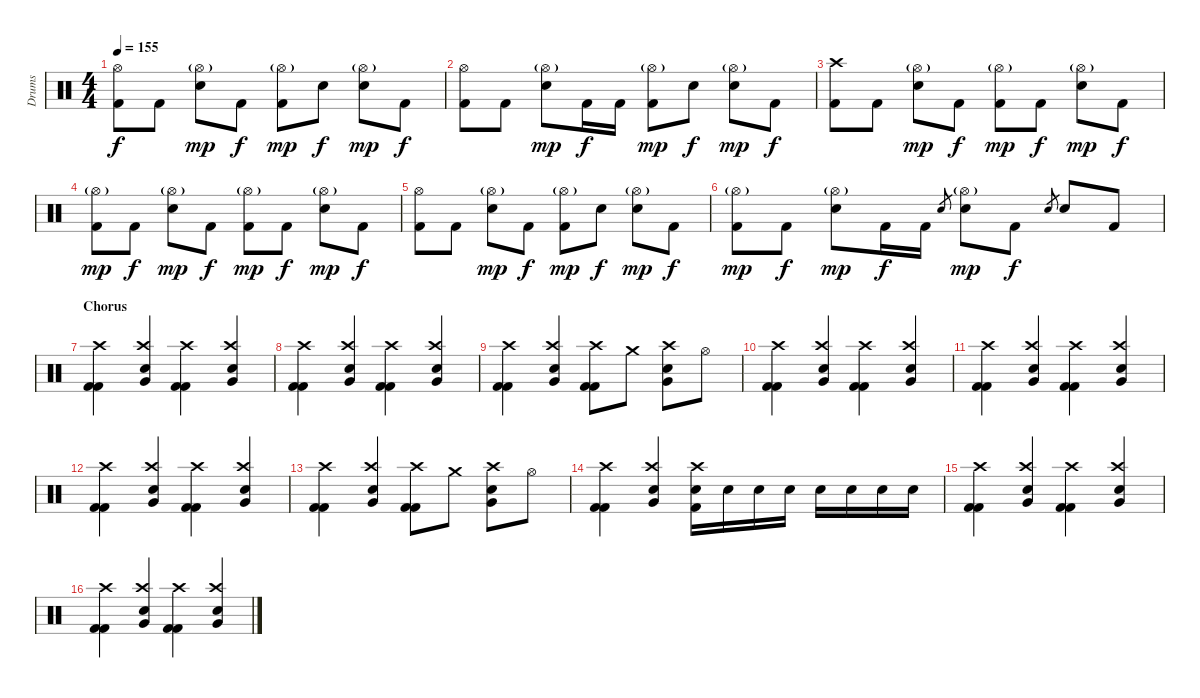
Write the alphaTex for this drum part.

\track ("Drums" "Drums") {instrument percussion}
\staff {score}
\articulation defaults
\ts (4 4)
\tempo 155
\clef neutral
\ks c
("Hi-Hat (open)" "Kick (hit) 2").8{dy f} "Kick (hit) 2".8 ("Hi-Hat (open)"{g} "Electric Snare (hit)").8{dy mp} "Kick (hit) 2".8{dy f} ("Hi-Hat (open)"{g} "Kick (hit) 2").8{dy mp} "Electric Snare (hit)".8{dy f} ("Hi-Hat (open)"{g} "Electric Snare (hit)").8{dy mp} "Kick (hit) 2".8{dy f} |
("Hi-Hat (open)" "Kick (hit) 2").8 "Kick (hit) 2".8 ("Hi-Hat (open)"{g} "Electric Snare (hit)").8{dy mp} "Kick (hit) 2".16{dy f} "Kick (hit) 2".16 ("Hi-Hat (open)"{g} "Kick (hit) 2").8{dy mp} "Electric Snare (hit)".8{dy f} ("Hi-Hat (open)"{g} "Electric Snare (hit)").8{dy mp} "Kick (hit) 2".8{dy f} |
("Crash high (hit)" "Kick (hit) 2").8 "Kick (hit) 2".8 ("Hi-Hat (open)"{g} "Electric Snare (hit)").8{dy mp} "Kick (hit) 2".8{dy f} ("Hi-Hat (open)"{g} "Kick (hit) 2").8{dy mp} "Kick (hit) 2".8{dy f} ("Hi-Hat (open)"{g} "Electric Snare (hit)").8{dy mp} "Kick (hit) 2".8{dy f} |
("Hi-Hat (open)"{g} "Kick (hit) 2").8{dy mp} "Kick (hit) 2".8{dy f} ("Hi-Hat (open)"{g} "Electric Snare (hit)").8{dy mp} "Kick (hit) 2".8{dy f} ("Hi-Hat (open)"{g} "Kick (hit) 2").8{dy mp} "Kick (hit) 2".8{dy f} ("Hi-Hat (open)"{g} "Electric Snare (hit)").8{dy mp} "Kick (hit) 2".8{dy f} |
("Hi-Hat (open)" "Kick (hit) 2").8 "Kick (hit) 2".8 ("Hi-Hat (open)"{g} "Electric Snare (hit)").8{dy mp} "Kick (hit) 2".8{dy f} ("Hi-Hat (open)"{g} "Kick (hit) 2").8{dy mp} "Electric Snare (hit)".8{dy f} ("Hi-Hat (open)"{g} "Electric Snare (hit)").8{dy mp} "Kick (hit) 2".8{dy f} |
("Hi-Hat (open)"{g} "Kick (hit) 2").8{dy mp} "Kick (hit) 2".8{dy f} ("Hi-Hat (open)"{g} "Electric Snare (hit)").8{dy mp} "Kick (hit) 2".16{dy f} "Kick (hit) 2".16 "Electric Snare (hit)".8{gr} ("Hi-Hat (open)"{g} "Electric Snare (hit)").8{dy mp} "Kick (hit) 2".8{dy f} "Electric Snare (hit)".8{gr} "Electric Snare (hit)".8 "Kick (hit) 2".8 |
\section ("" "Chorus")
("Crash high (hit)" "Kick (hit) 2" "Kick (hit) 2").4 ("Crash high (hit)" "Very Low Tom (hit)" "Electric Snare (hit)").4 ("Crash high (hit)" "Kick (hit) 2" "Kick (hit) 2").4 ("Crash high (hit)" "Very Low Tom (hit)" "Electric Snare (hit)").4 |
("Crash high (hit)" "Kick (hit) 2" "Kick (hit) 2").4 ("Crash high (hit)" "Very Low Tom (hit)" "Electric Snare (hit)").4 ("Crash high (hit)" "Kick (hit) 2" "Kick (hit) 2").4 ("Crash high (hit)" "Very Low Tom (hit)" "Electric Snare (hit)").4 |
("Crash high (hit)" "Kick (hit) 2" "Kick (hit) 2").4 ("Crash high (hit)" "Very Low Tom (hit)" "Electric Snare (hit)").4 ("Crash high (hit)" "Kick (hit) 2" "Kick (hit) 2").8 "Crash medium (hit)".8 ("Crash high (hit)" "Very Low Tom (hit)" "Electric Snare (hit)").8 "Hi-Hat (open)".8 |
("Crash high (hit)" "Kick (hit) 2" "Kick (hit) 2").4 ("Crash high (hit)" "Very Low Tom (hit)" "Electric Snare (hit)").4 ("Crash high (hit)" "Kick (hit) 2" "Kick (hit) 2").4 ("Crash high (hit)" "Very Low Tom (hit)" "Electric Snare (hit)").4 |
("Crash high (hit)" "Kick (hit) 2" "Kick (hit) 2").4 ("Crash high (hit)" "Very Low Tom (hit)" "Electric Snare (hit)").4 ("Crash high (hit)" "Kick (hit) 2" "Kick (hit) 2").4 ("Crash high (hit)" "Very Low Tom (hit)" "Electric Snare (hit)").4 |
("Crash high (hit)" "Kick (hit) 2" "Kick (hit) 2").4 ("Crash high (hit)" "Very Low Tom (hit)" "Electric Snare (hit)").4 ("Crash high (hit)" "Kick (hit) 2" "Kick (hit) 2").4 ("Crash high (hit)" "Very Low Tom (hit)" "Electric Snare (hit)").4 |
("Crash high (hit)" "Kick (hit) 2" "Kick (hit) 2").4 ("Crash high (hit)" "Very Low Tom (hit)" "Electric Snare (hit)").4 ("Crash high (hit)" "Kick (hit) 2" "Kick (hit) 2").8 "Crash medium (hit)".8 ("Crash high (hit)" "Very Low Tom (hit)" "Electric Snare (hit)").8 "Hi-Hat (open)".8 |
("Crash high (hit)" "Kick (hit) 2" "Kick (hit) 2").4 ("Crash high (hit)" "Very Low Tom (hit)" "Electric Snare (hit)").4 ("Crash high (hit)" "Electric Snare (hit)" "Kick (hit) 2").16 "Electric Snare (hit)".16 "Electric Snare (hit)".16 "Electric Snare (hit)".16 "Electric Snare (hit)".16 "Electric Snare (hit)".16 "Electric Snare (hit)".16 "Electric Snare (hit)".16 |
("Crash high (hit)" "Kick (hit) 2" "Kick (hit) 2").4 ("Crash high (hit)" "Very Low Tom (hit)" "Electric Snare (hit)").4 ("Crash high (hit)" "Kick (hit) 2" "Kick (hit) 2").4 ("Crash high (hit)" "Very Low Tom (hit)" "Electric Snare (hit)").4 |
("Crash high (hit)" "Kick (hit) 2" "Kick (hit) 2").4 ("Crash high (hit)" "Very Low Tom (hit)" "Electric Snare (hit)").4 ("Crash high (hit)" "Kick (hit) 2" "Kick (hit) 2").4 ("Crash high (hit)" "Very Low Tom (hit)" "Electric Snare (hit)").4
